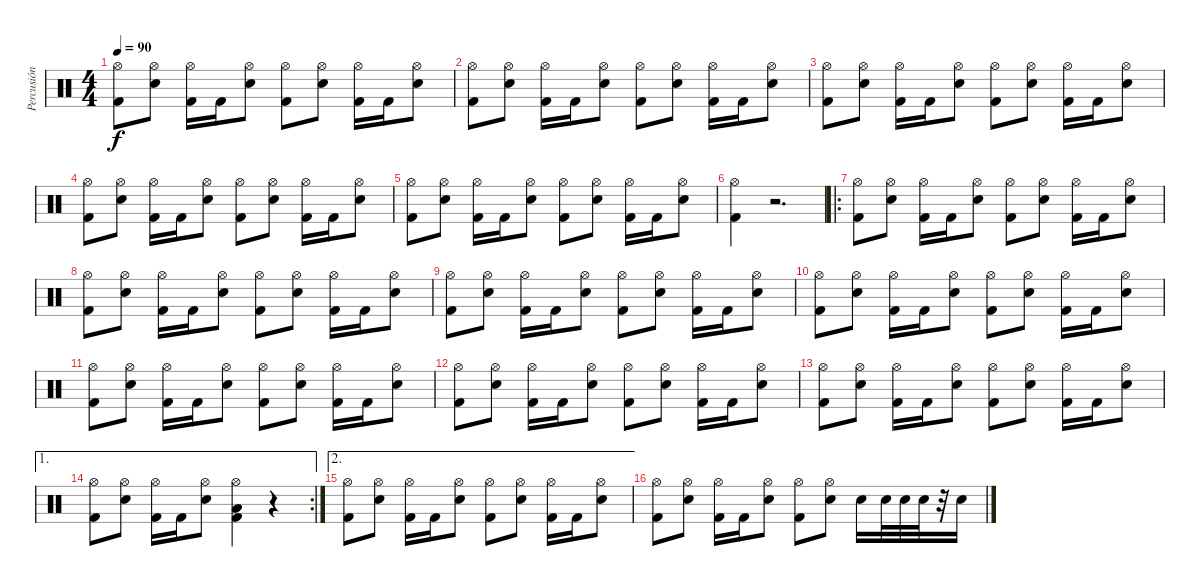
\track ("Percusión" "Percusión") {instrument percussion}
\staff {score}
\articulation defaults
\ts (4 4)
\tempo 90
\clef neutral
\ks c
("Hi-Hat (open)" "Kick (hit) 2").8{dy f} ("Hi-Hat (open)" "Snare (hit) 2").8 ("Hi-Hat (open)" "Kick (hit) 2").16 "Kick (hit) 2".16 ("Hi-Hat (open)" "Snare (hit) 2").8 ("Hi-Hat (open)" "Kick (hit) 2").8 ("Hi-Hat (open)" "Snare (hit) 2").8 ("Hi-Hat (open)" "Kick (hit) 2").16 "Kick (hit) 2".16 ("Hi-Hat (open)" "Snare (hit) 2").8 |
("Hi-Hat (open)" "Kick (hit) 2").8 ("Hi-Hat (open)" "Snare (hit) 2").8 ("Hi-Hat (open)" "Kick (hit) 2").16 "Kick (hit) 2".16 ("Hi-Hat (open)" "Snare (hit) 2").8 ("Hi-Hat (open)" "Kick (hit) 2").8 ("Hi-Hat (open)" "Snare (hit) 2").8 ("Hi-Hat (open)" "Kick (hit) 2").16 "Kick (hit) 2".16 ("Hi-Hat (open)" "Snare (hit) 2").8 |
("Hi-Hat (open)" "Kick (hit) 2").8 ("Hi-Hat (open)" "Snare (hit) 2").8 ("Hi-Hat (open)" "Kick (hit) 2").16 "Kick (hit) 2".16 ("Hi-Hat (open)" "Snare (hit) 2").8 ("Hi-Hat (open)" "Kick (hit) 2").8 ("Hi-Hat (open)" "Snare (hit) 2").8 ("Hi-Hat (open)" "Kick (hit) 2").16 "Kick (hit) 2".16 ("Hi-Hat (open)" "Snare (hit) 2").8 |
("Hi-Hat (open)" "Kick (hit) 2").8 ("Hi-Hat (open)" "Snare (hit) 2").8 ("Hi-Hat (open)" "Kick (hit) 2").16 "Kick (hit) 2".16 ("Hi-Hat (open)" "Snare (hit) 2").8 ("Hi-Hat (open)" "Kick (hit) 2").8 ("Hi-Hat (open)" "Snare (hit) 2").8 ("Hi-Hat (open)" "Kick (hit) 2").16 "Kick (hit) 2".16 ("Hi-Hat (open)" "Snare (hit) 2").8 |
("Hi-Hat (open)" "Kick (hit) 2").8 ("Hi-Hat (open)" "Snare (hit) 2").8 ("Hi-Hat (open)" "Kick (hit) 2").16 "Kick (hit) 2".16 ("Hi-Hat (open)" "Snare (hit) 2").8 ("Hi-Hat (open)" "Kick (hit) 2").8 ("Hi-Hat (open)" "Snare (hit) 2").8 ("Hi-Hat (open)" "Kick (hit) 2").16 "Kick (hit) 2".16 ("Hi-Hat (open)" "Snare (hit) 2").8 |
("Hi-Hat (open)" "Kick (hit) 2").4 r.2{d} |
\ro
("Hi-Hat (open)" "Kick (hit) 2").8 ("Hi-Hat (open)" "Snare (hit) 2").8 ("Hi-Hat (open)" "Kick (hit) 2").16 "Kick (hit) 2".16 ("Hi-Hat (open)" "Snare (hit) 2").8 ("Hi-Hat (open)" "Kick (hit) 2").8 ("Hi-Hat (open)" "Snare (hit) 2").8 ("Hi-Hat (open)" "Kick (hit) 2").16 "Kick (hit) 2".16 ("Hi-Hat (open)" "Snare (hit) 2").8 |
("Hi-Hat (open)" "Kick (hit) 2").8 ("Hi-Hat (open)" "Snare (hit) 2").8 ("Hi-Hat (open)" "Kick (hit) 2").16 "Kick (hit) 2".16 ("Hi-Hat (open)" "Snare (hit) 2").8 ("Hi-Hat (open)" "Kick (hit) 2").8 ("Hi-Hat (open)" "Snare (hit) 2").8 ("Hi-Hat (open)" "Kick (hit) 2").16 "Kick (hit) 2".16 ("Hi-Hat (open)" "Snare (hit) 2").8 |
("Hi-Hat (open)" "Kick (hit) 2").8 ("Hi-Hat (open)" "Snare (hit) 2").8 ("Hi-Hat (open)" "Kick (hit) 2").16 "Kick (hit) 2".16 ("Hi-Hat (open)" "Snare (hit) 2").8 ("Hi-Hat (open)" "Kick (hit) 2").8 ("Hi-Hat (open)" "Snare (hit) 2").8 ("Hi-Hat (open)" "Kick (hit) 2").16 "Kick (hit) 2".16 ("Hi-Hat (open)" "Snare (hit) 2").8 |
("Hi-Hat (open)" "Kick (hit) 2").8 ("Hi-Hat (open)" "Snare (hit) 2").8 ("Hi-Hat (open)" "Kick (hit) 2").16 "Kick (hit) 2".16 ("Hi-Hat (open)" "Snare (hit) 2").8 ("Hi-Hat (open)" "Kick (hit) 2").8 ("Hi-Hat (open)" "Snare (hit) 2").8 ("Hi-Hat (open)" "Kick (hit) 2").16 "Kick (hit) 2".16 ("Hi-Hat (open)" "Snare (hit) 2").8 |
("Hi-Hat (open)" "Kick (hit) 2").8 ("Hi-Hat (open)" "Snare (hit) 2").8 ("Hi-Hat (open)" "Kick (hit) 2").16 "Kick (hit) 2".16 ("Hi-Hat (open)" "Snare (hit) 2").8 ("Hi-Hat (open)" "Kick (hit) 2").8 ("Hi-Hat (open)" "Snare (hit) 2").8 ("Hi-Hat (open)" "Kick (hit) 2").16 "Kick (hit) 2".16 ("Hi-Hat (open)" "Snare (hit) 2").8 |
("Hi-Hat (open)" "Kick (hit) 2").8 ("Hi-Hat (open)" "Snare (hit) 2").8 ("Hi-Hat (open)" "Kick (hit) 2").16 "Kick (hit) 2".16 ("Hi-Hat (open)" "Snare (hit) 2").8 ("Hi-Hat (open)" "Kick (hit) 2").8 ("Hi-Hat (open)" "Snare (hit) 2").8 ("Hi-Hat (open)" "Kick (hit) 2").16 "Kick (hit) 2".16 ("Hi-Hat (open)" "Snare (hit) 2").8 |
("Hi-Hat (open)" "Kick (hit) 2").8 ("Hi-Hat (open)" "Snare (hit) 2").8 ("Hi-Hat (open)" "Kick (hit) 2").16 "Kick (hit) 2".16 ("Hi-Hat (open)" "Snare (hit) 2").8 ("Hi-Hat (open)" "Kick (hit) 2").8 ("Hi-Hat (open)" "Snare (hit) 2").8 ("Hi-Hat (open)" "Kick (hit) 2").16 "Kick (hit) 2".16 ("Hi-Hat (open)" "Snare (hit) 2").8 |
\ae 1
\rc 2
("Hi-Hat (open)" "Kick (hit) 2").8 ("Hi-Hat (open)" "Snare (hit) 2").8 ("Hi-Hat (open)" "Kick (hit) 2").16 "Kick (hit) 2".16 ("Hi-Hat (open)" "Snare (hit) 2").8 ("Hi-Hat (open)" "Low Floor Tom (hit)" "Kick (hit) 2").4 r.4 |
\ae 2
("Hi-Hat (open)" "Kick (hit) 2").8 ("Hi-Hat (open)" "Snare (hit) 2").8 ("Hi-Hat (open)" "Kick (hit) 2").16 "Kick (hit) 2".16 ("Hi-Hat (open)" "Snare (hit) 2").8 ("Hi-Hat (open)" "Kick (hit) 2").8 ("Hi-Hat (open)" "Snare (hit) 2").8 ("Hi-Hat (open)" "Kick (hit) 2").16 "Kick (hit) 2".16 ("Hi-Hat (open)" "Snare (hit) 2").8 |
("Hi-Hat (open)" "Kick (hit) 2").8 ("Hi-Hat (open)" "Snare (hit) 2").8 ("Hi-Hat (open)" "Kick (hit) 2").16 "Kick (hit) 2".16 ("Hi-Hat (open)" "Snare (hit) 2").8 ("Hi-Hat (open)" "Kick (hit) 2").8 ("Hi-Hat (open)" "Snare (hit) 2").8 "Snare (hit) 2".16 "Snare (hit) 2".32 "Snare (hit) 2".32 "Snare (hit) 2".32 r.32 "Snare (hit) 2".16
